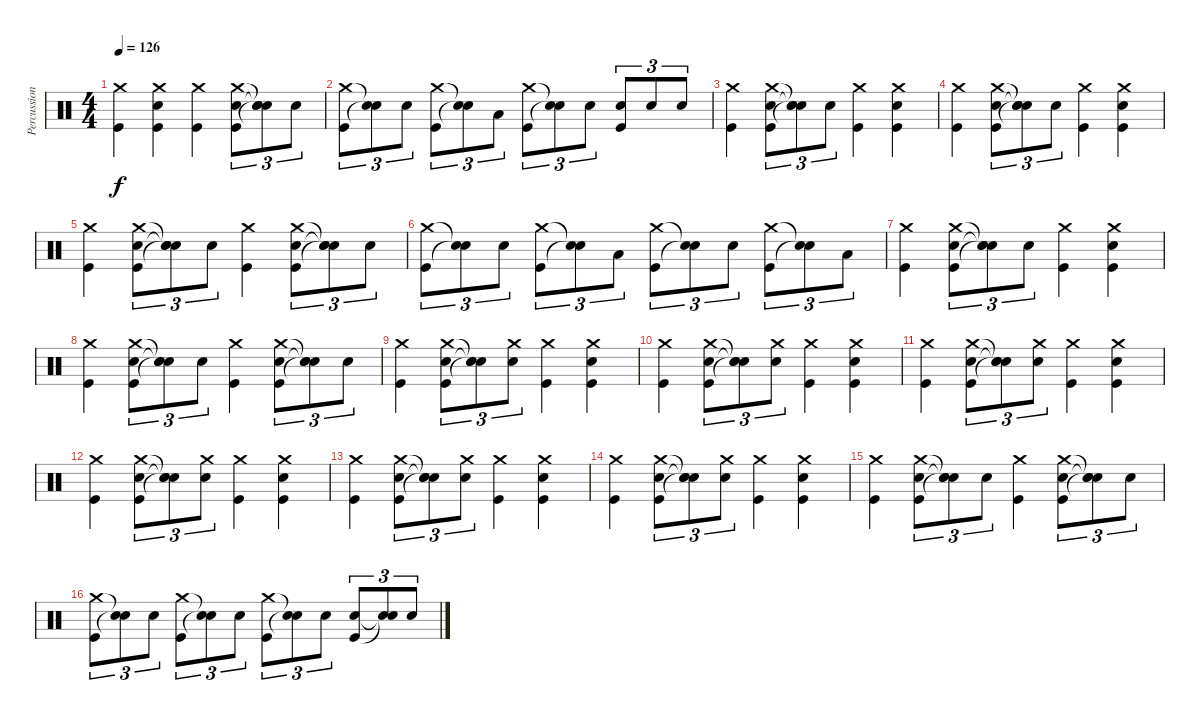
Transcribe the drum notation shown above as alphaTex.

\track ("Percussion" "Percussion") {instrument percussion}
\staff {score}
\articulation defaults
\ts (4 4)
\tempo 126
\clef neutral
\ks c
("Crash medium (hit)" "Kick (hit)").4{dy f} ("Crash medium (hit)" "Snare (hit) 2" "Kick (hit)").4 ("Crash medium (hit)" "Kick (hit)").4 ("Crash medium (hit)" "Snare (hit) 2" "Kick (hit)").8{tu (3 2)} ("Snare (hit)"{t} "Snare (hit)"{t} "Snare (hit)"{t}).8{tu (3 2)} "Snare (hit) 2".8{tu (3 2)} |
("Crash medium (hit)" "Kick (hit)").8{tu (3 2)} ("Snare (hit)"{t} "Snare (hit)"{t}).8{tu (3 2)} "Snare (hit) 2".8{tu (3 2)} ("Crash medium (hit)" "Kick (hit)").8{tu (3 2)} ("Snare (hit)"{t} "Snare (hit)"{t}).8{tu (3 2)} "Low Tom (hit)".8{tu (3 2)} ("Crash medium (hit)" "Kick (hit)").8{tu (3 2)} ("Snare (hit)"{t} "Snare (hit)"{t}).8{tu (3 2)} "Snare (hit) 2".8{tu (3 2)} ("Snare (hit) 2" "Kick (hit)").8{tu (3 2)} "Snare (hit) 2".8{tu (3 2)} "Snare (hit) 2".8{tu (3 2)} |
("Crash medium (hit)" "Kick (hit)").4 ("Crash medium (hit)" "Snare (hit) 2" "Kick (hit)").8{tu (3 2)} ("Snare (hit)"{t} "Snare (hit)"{t} "Snare (hit)"{t}).8{tu (3 2)} "Snare (hit) 2".8{tu (3 2)} ("Crash medium (hit)" "Kick (hit)").4 ("Crash medium (hit)" "Snare (hit) 2" "Kick (hit)").4 |
("Crash medium (hit)" "Kick (hit)").4 ("Crash medium (hit)" "Snare (hit) 2" "Kick (hit)").8{tu (3 2)} ("Snare (hit)"{t} "Snare (hit)"{t} "Snare (hit)"{t}).8{tu (3 2)} "Snare (hit) 2".8{tu (3 2)} ("Crash medium (hit)" "Kick (hit)").4 ("Crash medium (hit)" "Snare (hit) 2" "Kick (hit)").4 |
("Crash medium (hit)" "Kick (hit)").4 ("Crash medium (hit)" "Snare (hit) 2" "Kick (hit)").8{tu (3 2)} ("Snare (hit)"{t} "Snare (hit)"{t} "Snare (hit)"{t}).8{tu (3 2)} "Snare (hit) 2".8{tu (3 2)} ("Crash medium (hit)" "Kick (hit)").4 ("Crash medium (hit)" "Snare (hit) 2" "Kick (hit)").8{tu (3 2)} ("Snare (hit)"{t} "Snare (hit)"{t} "Snare (hit)"{t}).8{tu (3 2)} "Snare (hit) 2".8{tu (3 2)} |
("Crash medium (hit)" "Kick (hit)").8{tu (3 2)} ("Snare (hit)"{t} "Snare (hit)"{t}).8{tu (3 2)} "Snare (hit) 2".8{tu (3 2)} ("Crash medium (hit)" "Kick (hit)").8{tu (3 2)} ("Snare (hit)"{t} "Snare (hit)"{t}).8{tu (3 2)} "Low Tom (hit)".8{tu (3 2)} ("Crash medium (hit)" "Kick (hit)").8{tu (3 2)} ("Snare (hit)"{t} "Snare (hit)"{t}).8{tu (3 2)} "Snare (hit) 2".8{tu (3 2)} ("Crash medium (hit)" "Kick (hit)").8{tu (3 2)} ("Snare (hit)"{t} "Snare (hit)"{t}).8{tu (3 2)} "Low Tom (hit)".8{tu (3 2)} |
("Crash medium (hit)" "Kick (hit)").4 ("Crash medium (hit)" "Snare (hit) 2" "Kick (hit)").8{tu (3 2)} ("Snare (hit)"{t} "Snare (hit)"{t} "Snare (hit)"{t}).8{tu (3 2)} "Snare (hit) 2".8{tu (3 2)} ("Crash medium (hit)" "Kick (hit)").4 ("Crash medium (hit)" "Snare (hit) 2" "Kick (hit)").4 |
("Crash medium (hit)" "Kick (hit)").4 ("Crash medium (hit)" "Snare (hit) 2" "Kick (hit)").8{tu (3 2)} ("Snare (hit)"{t} "Snare (hit)"{t} "Snare (hit)"{t}).8{tu (3 2)} "Snare (hit) 2".8{tu (3 2)} ("Crash medium (hit)" "Kick (hit)").4 ("Crash medium (hit)" "Snare (hit) 2" "Kick (hit)").8{tu (3 2)} ("Snare (hit)"{t} "Snare (hit)"{t} "Snare (hit)"{t}).8{tu (3 2)} "Snare (hit) 2".8{tu (3 2)} |
("Crash medium (hit)" "Kick (hit)").4 ("Crash medium (hit)" "Snare (hit) 2" "Kick (hit)").8{tu (3 2)} ("Snare (hit)"{t} "Snare (hit)"{t} "Snare (hit)"{t}).8{tu (3 2)} ("Crash medium (hit)" "Snare (hit) 2").8{tu (3 2)} ("Crash medium (hit)" "Kick (hit)").4 ("Crash medium (hit)" "Snare (hit) 2" "Kick (hit)").4 |
("Crash medium (hit)" "Kick (hit)").4 ("Crash medium (hit)" "Snare (hit) 2" "Kick (hit)").8{tu (3 2)} ("Snare (hit)"{t} "Snare (hit)"{t} "Snare (hit)"{t}).8{tu (3 2)} ("Crash medium (hit)" "Snare (hit) 2").8{tu (3 2)} ("Crash medium (hit)" "Kick (hit)").4 ("Crash medium (hit)" "Snare (hit) 2" "Kick (hit)").4 |
("Crash medium (hit)" "Kick (hit)").4 ("Crash medium (hit)" "Snare (hit) 2" "Kick (hit)").8{tu (3 2)} ("Snare (hit)"{t} "Snare (hit)"{t} "Snare (hit)"{t}).8{tu (3 2)} ("Crash medium (hit)" "Snare (hit) 2").8{tu (3 2)} ("Crash medium (hit)" "Kick (hit)").4 ("Crash medium (hit)" "Snare (hit) 2" "Kick (hit)").4 |
("Crash medium (hit)" "Kick (hit)").4 ("Crash medium (hit)" "Snare (hit) 2" "Kick (hit)").8{tu (3 2)} ("Snare (hit)"{t} "Snare (hit)"{t} "Snare (hit)"{t}).8{tu (3 2)} ("Crash medium (hit)" "Snare (hit) 2").8{tu (3 2)} ("Crash medium (hit)" "Kick (hit)").4 ("Crash medium (hit)" "Snare (hit) 2" "Kick (hit)").4 |
("Crash medium (hit)" "Kick (hit)").4 ("Crash medium (hit)" "Snare (hit) 2" "Kick (hit)").8{tu (3 2)} ("Snare (hit)"{t} "Snare (hit)"{t} "Snare (hit)"{t}).8{tu (3 2)} ("Crash medium (hit)" "Snare (hit) 2").8{tu (3 2)} ("Crash medium (hit)" "Kick (hit)").4 ("Crash medium (hit)" "Snare (hit) 2" "Kick (hit)").4 |
("Crash medium (hit)" "Kick (hit)").4 ("Crash medium (hit)" "Snare (hit) 2" "Kick (hit)").8{tu (3 2)} ("Snare (hit)"{t} "Snare (hit)"{t} "Snare (hit)"{t}).8{tu (3 2)} ("Crash medium (hit)" "Snare (hit) 2").8{tu (3 2)} ("Crash medium (hit)" "Kick (hit)").4 ("Crash medium (hit)" "Snare (hit) 2" "Kick (hit)").4 |
("Crash medium (hit)" "Kick (hit)").4 ("Crash medium (hit)" "Snare (hit) 2" "Kick (hit)").8{tu (3 2)} ("Snare (hit)"{t} "Snare (hit)"{t} "Snare (hit)"{t}).8{tu (3 2)} "Snare (hit) 2".8{tu (3 2)} ("Crash medium (hit)" "Kick (hit)").4 ("Crash medium (hit)" "Snare (hit) 2" "Kick (hit)").8{tu (3 2)} ("Snare (hit)"{t} "Snare (hit)"{t} "Snare (hit)"{t}).8{tu (3 2)} "Snare (hit) 2".8{tu (3 2)} |
("Crash medium (hit)" "Kick (hit)").8{tu (3 2)} ("Snare (hit)"{t} "Snare (hit)"{t}).8{tu (3 2)} "Snare (hit) 2".8{tu (3 2)} ("Crash medium (hit)" "Kick (hit)").8{tu (3 2)} ("Snare (hit)"{t} "Snare (hit)"{t}).8{tu (3 2)} "Snare (hit) 2".8{tu (3 2)} ("Crash medium (hit)" "Kick (hit)").8{tu (3 2)} ("Snare (hit)"{t} "Snare (hit)"{t}).8{tu (3 2)} "Snare (hit) 2".8{tu (3 2)} ("Snare (hit) 2" "Kick (hit)").8{tu (3 2)} ("Snare (hit)"{t} "Snare (hit)"{t}).8{tu (3 2)} "Snare (hit) 2".8{tu (3 2)}
